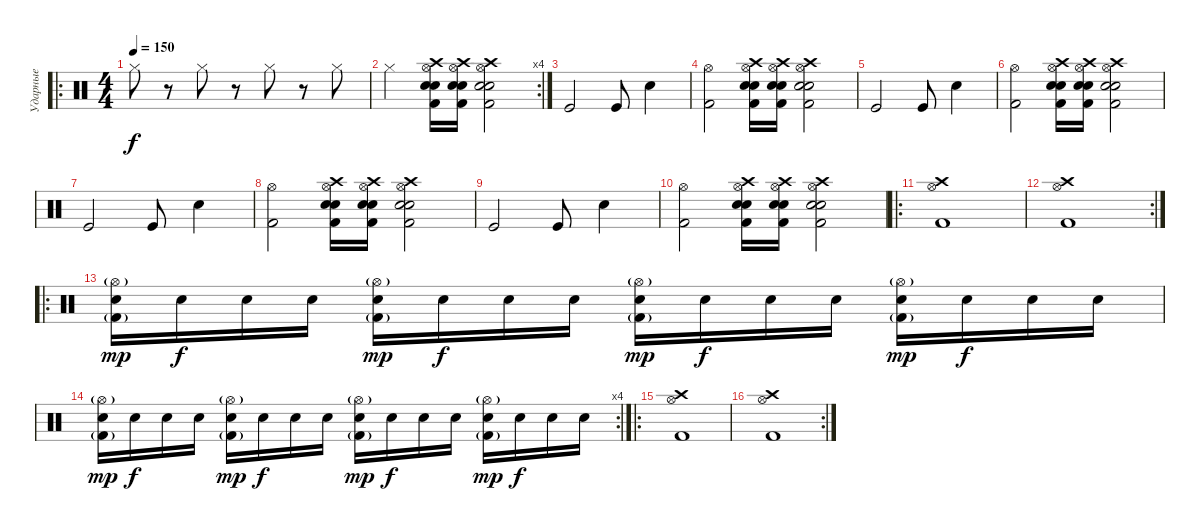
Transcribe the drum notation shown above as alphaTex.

\track ("Ударные" "Ударные") {instrument percussion}
\staff {score}
\articulation defaults
\ro
\ts (4 4)
\tempo 150
\clef neutral
\ks c "Hi-Hat (closed)".8{dy f}
r.8 "Hi-Hat (closed)".8 r.8 "Hi-Hat (closed)".8 r.8 "Hi-Hat (closed)".8 |
\rc 4 "Hi-Hat (closed)".2
("Snare (hit) 2" "Kick (hit) 2" "Crash high (hit)" "Hi-Hat (open)" "Electric Snare (hit)").16 ("Snare (hit) 2" "Kick (hit) 2" "Crash high (hit)" "Hi-Hat (open)" "Electric Snare (hit)").16 ("Snare (hit) 2" "Kick (hit) 2" "Crash high (hit)" "Hi-Hat (open)" "Electric Snare (hit)").2 |
"Kick (hit)".2 "Kick (hit)".8 "Electric Snare (hit)".4 |
("Hi-Hat (open)" "Kick (hit) 2").2 ("Snare (hit) 2" "Kick (hit) 2" "Crash high (hit)" "Hi-Hat (open)" "Electric Snare (hit)").16 ("Snare (hit) 2" "Kick (hit) 2" "Crash high (hit)" "Hi-Hat (open)" "Electric Snare (hit)").16 ("Snare (hit) 2" "Kick (hit) 2" "Crash high (hit)" "Hi-Hat (open)" "Electric Snare (hit)").2 |
"Kick (hit)".2 "Kick (hit)".8 "Electric Snare (hit)".4 |
("Hi-Hat (open)" "Kick (hit) 2").2 ("Snare (hit) 2" "Kick (hit) 2" "Crash high (hit)" "Hi-Hat (open)" "Electric Snare (hit)").16 ("Snare (hit) 2" "Kick (hit) 2" "Crash high (hit)" "Hi-Hat (open)" "Electric Snare (hit)").16 ("Snare (hit) 2" "Kick (hit) 2" "Crash high (hit)" "Hi-Hat (open)" "Electric Snare (hit)").2 |
"Kick (hit)".2 "Kick (hit)".8 "Electric Snare (hit)".4 |
("Hi-Hat (open)" "Kick (hit) 2").2 ("Snare (hit) 2" "Kick (hit) 2" "Crash high (hit)" "Hi-Hat (open)" "Electric Snare (hit)").16 ("Snare (hit) 2" "Kick (hit) 2" "Crash high (hit)" "Hi-Hat (open)" "Electric Snare (hit)").16 ("Snare (hit) 2" "Kick (hit) 2" "Crash high (hit)" "Hi-Hat (open)" "Electric Snare (hit)").2 |
"Kick (hit)".2 "Kick (hit)".8 "Electric Snare (hit)".4 |
("Hi-Hat (open)" "Kick (hit) 2").2 ("Snare (hit) 2" "Kick (hit) 2" "Crash high (hit)" "Hi-Hat (open)" "Electric Snare (hit)").16 ("Snare (hit) 2" "Kick (hit) 2" "Crash high (hit)" "Hi-Hat (open)" "Electric Snare (hit)").16 ("Snare (hit) 2" "Kick (hit) 2" "Crash high (hit)" "Hi-Hat (open)" "Electric Snare (hit)").2 |
\ro
("Crash high (hit)" "Hi-Hat (open)" "Kick (hit) 2").1 |
\rc 2
("Crash high (hit)" "Hi-Hat (open)" "Kick (hit) 2").1 |
\ro
("Snare (hit) 2" "Kick (hit) 2"{g} "Hi-Hat (open)"{g}).16{dy mp} "Snare (hit) 2".16{dy f} "Snare (hit) 2".16 "Snare (hit) 2".16 ("Snare (hit) 2" "Kick (hit) 2"{g} "Hi-Hat (open)"{g}).16{dy mp} "Snare (hit) 2".16{dy f} "Snare (hit) 2".16 "Snare (hit) 2".16 ("Snare (hit) 2" "Kick (hit) 2"{g} "Hi-Hat (open)"{g}).16{dy mp} "Snare (hit) 2".16{dy f} "Snare (hit) 2".16 "Snare (hit) 2".16 ("Snare (hit) 2" "Kick (hit) 2"{g} "Hi-Hat (open)"{g}).16{dy mp} "Snare (hit) 2".16{dy f} "Snare (hit) 2".16 "Snare (hit) 2".16 |
\rc 4
("Snare (hit) 2" "Kick (hit) 2"{g} "Hi-Hat (open)"{g}).16{dy mp} "Snare (hit) 2".16{dy f} "Snare (hit) 2".16 "Snare (hit) 2".16 ("Snare (hit) 2" "Kick (hit) 2"{g} "Hi-Hat (open)"{g}).16{dy mp} "Snare (hit) 2".16{dy f} "Snare (hit) 2".16 "Snare (hit) 2".16 ("Snare (hit) 2" "Kick (hit) 2"{g} "Hi-Hat (open)"{g}).16{dy mp} "Snare (hit) 2".16{dy f} "Snare (hit) 2".16 "Snare (hit) 2".16 ("Snare (hit) 2" "Kick (hit) 2"{g} "Hi-Hat (open)"{g}).16{dy mp} "Snare (hit) 2".16{dy f} "Snare (hit) 2".16 "Snare (hit) 2".16 |
\ro
("Crash high (hit)" "Hi-Hat (open)" "Kick (hit) 2").1 |
\rc 2
("Crash high (hit)" "Hi-Hat (open)" "Kick (hit) 2").1
